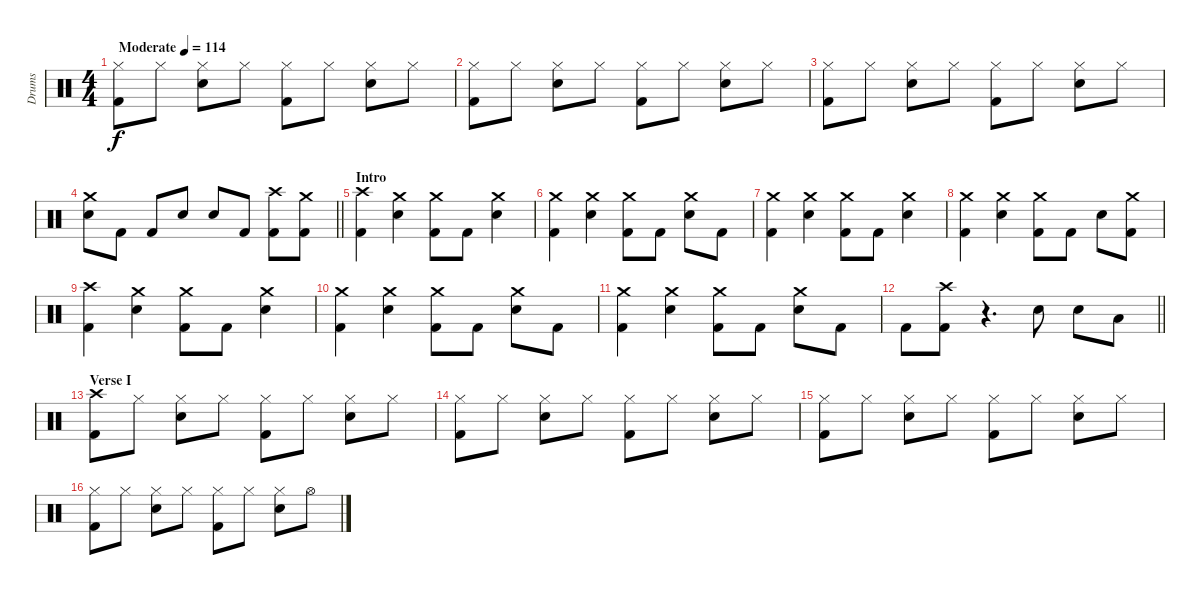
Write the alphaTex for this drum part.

\track ("Drums" "Drums") {instrument percussion}
\staff {score}
\articulation defaults
\ts (4 4)
\tempo (114 "Moderate")
\clef neutral
\ks c
("Hi-Hat (closed)" "Kick (hit) 2").8{dy f} "Hi-Hat (closed)".8 ("Hi-Hat (closed)" "Snare (hit) 2").8 "Hi-Hat (closed)".8 ("Hi-Hat (closed)" "Kick (hit) 2").8 "Hi-Hat (closed)".8 ("Hi-Hat (closed)" "Snare (hit) 2").8 "Hi-Hat (closed)".8 |
("Hi-Hat (closed)" "Kick (hit) 2").8 "Hi-Hat (closed)".8 ("Hi-Hat (closed)" "Snare (hit) 2").8 "Hi-Hat (closed)".8 ("Hi-Hat (closed)" "Kick (hit) 2").8 "Hi-Hat (closed)".8 ("Hi-Hat (closed)" "Snare (hit) 2").8 "Hi-Hat (closed)".8 |
("Hi-Hat (closed)" "Kick (hit) 2").8 "Hi-Hat (closed)".8 ("Hi-Hat (closed)" "Snare (hit) 2").8 "Hi-Hat (closed)".8 ("Hi-Hat (closed)" "Kick (hit) 2").8 "Hi-Hat (closed)".8 ("Hi-Hat (closed)" "Snare (hit) 2").8 "Hi-Hat (closed)".8 |
\barLineRight lightlight
("Crash medium (hit)" "Snare (hit) 2").8 "Kick (hit) 2".8 "Kick (hit) 2".8 "Snare (hit) 2".8 "Snare (hit) 2".8 "Kick (hit) 2".8 ("Crash high (hit)" "Kick (hit) 2").8 ("Crash medium (hit)" "Kick (hit) 2").8 |
\section ("" "Intro")
("Crash high (hit)" "Kick (hit) 2").4 ("Crash medium (hit)" "Snare (hit) 2").4 ("Crash medium (hit)" "Kick (hit) 2").8 "Kick (hit) 2".8 ("Crash medium (hit)" "Snare (hit) 2").4 |
("Crash medium (hit)" "Kick (hit) 2").4 ("Crash medium (hit)" "Snare (hit) 2").4 ("Crash medium (hit)" "Kick (hit) 2").8 "Kick (hit) 2".8 ("Crash medium (hit)" "Snare (hit) 2").8 "Kick (hit) 2".8 |
("Crash medium (hit)" "Kick (hit) 2").4 ("Crash medium (hit)" "Snare (hit) 2").4 ("Crash medium (hit)" "Kick (hit) 2").8 "Kick (hit) 2".8 ("Crash medium (hit)" "Snare (hit) 2").4 |
("Crash medium (hit)" "Kick (hit) 2").4 ("Crash medium (hit)" "Snare (hit) 2").4 ("Crash medium (hit)" "Kick (hit) 2").8 "Kick (hit) 2".8 "Snare (hit) 2".8 ("Crash medium (hit)" "Kick (hit) 2").8 |
("Crash high (hit)" "Kick (hit) 2").4 ("Crash medium (hit)" "Snare (hit) 2").4 ("Crash medium (hit)" "Kick (hit) 2").8 "Kick (hit) 2".8 ("Crash medium (hit)" "Snare (hit) 2").4 |
("Crash medium (hit)" "Kick (hit) 2").4 ("Crash medium (hit)" "Snare (hit) 2").4 ("Crash medium (hit)" "Kick (hit) 2").8 "Kick (hit) 2".8 ("Crash medium (hit)" "Snare (hit) 2").8 "Kick (hit) 2".8 |
("Crash medium (hit)" "Kick (hit) 2").4 ("Crash medium (hit)" "Snare (hit) 2").4 ("Crash medium (hit)" "Kick (hit) 2").8 "Kick (hit) 2".8 ("Crash medium (hit)" "Snare (hit) 2").8 "Kick (hit) 2".8 |
\barLineRight lightlight "Kick (hit) 2".8
("Crash high (hit)" "Kick (hit) 2").8 r.4{d} "Snare (hit) 2".8 "Snare (hit) 2".8 "Low Tom (hit)".8 |
\section ("" "Verse I")
("Crash high (hit)" "Kick (hit) 2").8 "Hi-Hat (closed)".8 ("Hi-Hat (closed)" "Snare (hit) 2").8 "Hi-Hat (closed)".8 ("Hi-Hat (closed)" "Kick (hit) 2").8 "Hi-Hat (closed)".8 ("Hi-Hat (closed)" "Snare (hit) 2").8 "Hi-Hat (closed)".8 |
("Hi-Hat (closed)" "Kick (hit) 2").8 "Hi-Hat (closed)".8 ("Hi-Hat (closed)" "Snare (hit) 2").8 "Hi-Hat (closed)".8 ("Hi-Hat (closed)" "Kick (hit) 2").8 "Hi-Hat (closed)".8 ("Hi-Hat (closed)" "Snare (hit) 2").8 "Hi-Hat (closed)".8 |
("Hi-Hat (closed)" "Kick (hit) 2").8 "Hi-Hat (closed)".8 ("Hi-Hat (closed)" "Snare (hit) 2").8 "Hi-Hat (closed)".8 ("Hi-Hat (closed)" "Kick (hit) 2").8 "Hi-Hat (closed)".8 ("Hi-Hat (closed)" "Snare (hit) 2").8 "Hi-Hat (closed)".8 |
("Hi-Hat (closed)" "Kick (hit) 2").8 "Hi-Hat (closed)".8 ("Hi-Hat (closed)" "Snare (hit) 2").8 "Hi-Hat (closed)".8 ("Hi-Hat (closed)" "Kick (hit) 2").8 "Hi-Hat (closed)".8 ("Hi-Hat (closed)" "Snare (hit) 2").8 "Hi-Hat (open)".8
